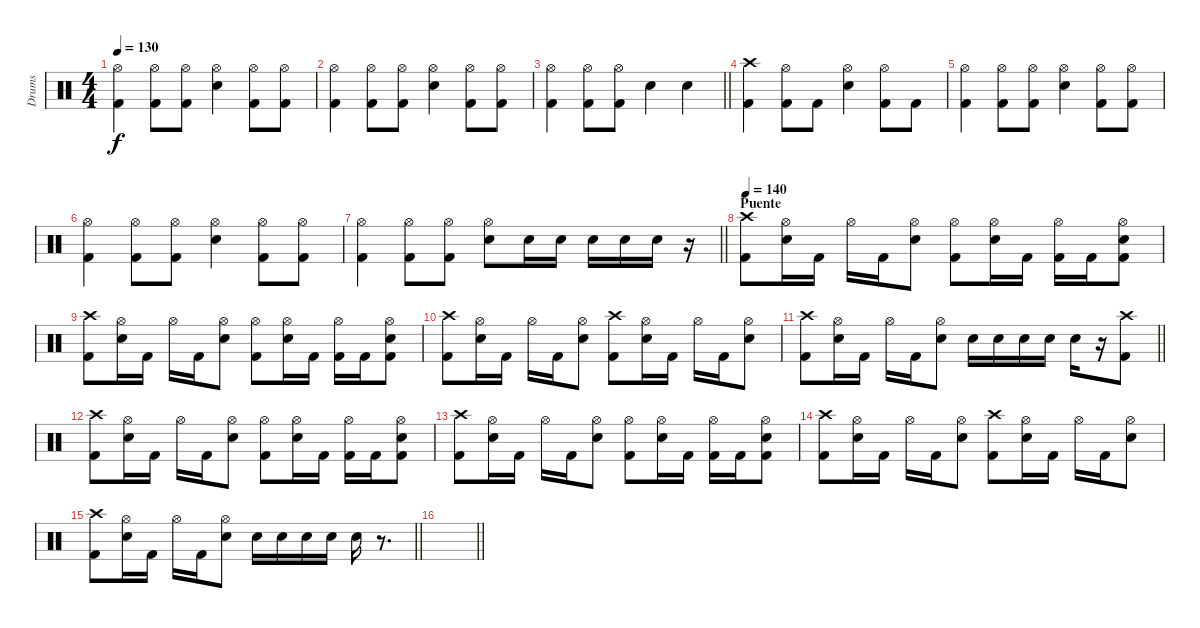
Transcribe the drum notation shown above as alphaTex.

\track ("Drums" "Drums") {instrument percussion}
\staff {score}
\articulation defaults
\ts (4 4)
\tempo 130
\clef neutral
\ks c
("Hi-Hat (open)" "Kick (hit) 2").4{dy f} ("Hi-Hat (open)" "Kick (hit) 2").8 ("Hi-Hat (open)" "Kick (hit) 2").8 ("Hi-Hat (open)" "Snare (hit) 2").4 ("Hi-Hat (open)" "Kick (hit) 2").8 ("Hi-Hat (open)" "Kick (hit) 2").8 |
("Hi-Hat (open)" "Kick (hit) 2").4 ("Hi-Hat (open)" "Kick (hit) 2").8 ("Hi-Hat (open)" "Kick (hit) 2").8 ("Hi-Hat (open)" "Snare (hit) 2").4 ("Hi-Hat (open)" "Kick (hit) 2").8 ("Hi-Hat (open)" "Kick (hit) 2").8 |
\barLineRight lightlight
("Hi-Hat (open)" "Kick (hit) 2").4 ("Hi-Hat (open)" "Kick (hit) 2").8 ("Hi-Hat (open)" "Kick (hit) 2").8 "Snare (hit) 2".4 "Snare (hit) 2".4 |
("Crash high (hit)" "Kick (hit) 2").4 ("Hi-Hat (open)" "Kick (hit) 2").8 "Kick (hit) 2".8 ("Hi-Hat (open)" "Snare (hit) 2").4 ("Hi-Hat (open)" "Kick (hit) 2").8 "Kick (hit) 2".8 |
("Hi-Hat (open)" "Kick (hit) 2").4 ("Hi-Hat (open)" "Kick (hit) 2").8 ("Hi-Hat (open)" "Kick (hit) 2").8 ("Hi-Hat (open)" "Snare (hit) 2").4 ("Hi-Hat (open)" "Kick (hit) 2").8 ("Hi-Hat (open)" "Kick (hit) 2").8 |
("Hi-Hat (open)" "Kick (hit) 2").4 ("Hi-Hat (open)" "Kick (hit) 2").8 ("Hi-Hat (open)" "Kick (hit) 2").8 ("Hi-Hat (open)" "Snare (hit) 2").4 ("Hi-Hat (open)" "Kick (hit) 2").8 ("Hi-Hat (open)" "Kick (hit) 2").8 |
\barLineRight lightlight
("Hi-Hat (open)" "Kick (hit) 2").4 ("Hi-Hat (open)" "Kick (hit) 2").8 ("Hi-Hat (open)" "Kick (hit) 2").8 ("Hi-Hat (open)" "Snare (hit) 2").8 "Snare (hit) 2".16 "Snare (hit) 2".16 "Snare (hit) 2".16 "Snare (hit) 2".16 "Snare (hit) 2".16 r.16 |
\section ("" "Puente")
\tempo 140
("Crash high (hit)" "Kick (hit) 2").8 ("Hi-Hat (open)" "Snare (hit) 2").16 "Kick (hit) 2".16 "Hi-Hat (open)".16 "Kick (hit) 2".16 ("Hi-Hat (open)" "Snare (hit) 2").8 ("Hi-Hat (open)" "Kick (hit) 2").8 ("Hi-Hat (open)" "Snare (hit) 2").16 "Kick (hit) 2".16 ("Hi-Hat (open)" "Kick (hit) 2").16 "Kick (hit) 2".16 ("Hi-Hat (open)" "Snare (hit) 2" "Kick (hit) 2").8 |
("Crash high (hit)" "Kick (hit) 2").8 ("Hi-Hat (open)" "Snare (hit) 2").16 "Kick (hit) 2".16 "Hi-Hat (open)".16 "Kick (hit) 2".16 ("Hi-Hat (open)" "Snare (hit) 2").8 ("Hi-Hat (open)" "Kick (hit) 2").8 ("Hi-Hat (open)" "Snare (hit) 2").16 "Kick (hit) 2".16 ("Hi-Hat (open)" "Kick (hit) 2").16 "Kick (hit) 2".16 ("Hi-Hat (open)" "Snare (hit) 2" "Kick (hit) 2").8 |
("Crash high (hit)" "Kick (hit) 2").8 ("Hi-Hat (open)" "Snare (hit) 2").16 "Kick (hit) 2".16 "Hi-Hat (open)".16 "Kick (hit) 2".16 ("Hi-Hat (open)" "Snare (hit) 2").8 ("Crash high (hit)" "Kick (hit) 2").8 ("Hi-Hat (open)" "Snare (hit) 2").16 "Kick (hit) 2".16 "Hi-Hat (open)".16 "Kick (hit) 2".16 ("Hi-Hat (open)" "Snare (hit) 2").8 |
\barLineRight lightlight
("Crash high (hit)" "Kick (hit) 2").8 ("Hi-Hat (open)" "Snare (hit) 2").16 "Kick (hit) 2".16 "Hi-Hat (open)".16 "Kick (hit) 2".16 ("Hi-Hat (open)" "Snare (hit) 2").8 "Snare (hit) 2".16 "Snare (hit) 2".16 "Snare (hit) 2".16 "Snare (hit) 2".16 "Snare (hit) 2".16 r.16 ("Kick (hit) 2" "Crash high (hit)").8 |
("Crash high (hit)" "Kick (hit) 2").8 ("Hi-Hat (open)" "Snare (hit) 2").16 "Kick (hit) 2".16 "Hi-Hat (open)".16 "Kick (hit) 2".16 ("Hi-Hat (open)" "Snare (hit) 2").8 ("Hi-Hat (open)" "Kick (hit) 2").8 ("Hi-Hat (open)" "Snare (hit) 2").16 "Kick (hit) 2".16 ("Hi-Hat (open)" "Kick (hit) 2").16 "Kick (hit) 2".16 ("Hi-Hat (open)" "Snare (hit) 2" "Kick (hit) 2").8 |
("Crash high (hit)" "Kick (hit) 2").8 ("Hi-Hat (open)" "Snare (hit) 2").16 "Kick (hit) 2".16 "Hi-Hat (open)".16 "Kick (hit) 2".16 ("Hi-Hat (open)" "Snare (hit) 2").8 ("Hi-Hat (open)" "Kick (hit) 2").8 ("Hi-Hat (open)" "Snare (hit) 2").16 "Kick (hit) 2".16 ("Hi-Hat (open)" "Kick (hit) 2").16 "Kick (hit) 2".16 ("Hi-Hat (open)" "Snare (hit) 2" "Kick (hit) 2").8 |
("Crash high (hit)" "Kick (hit) 2").8 ("Hi-Hat (open)" "Snare (hit) 2").16 "Kick (hit) 2".16 "Hi-Hat (open)".16 "Kick (hit) 2".16 ("Hi-Hat (open)" "Snare (hit) 2").8 ("Crash high (hit)" "Kick (hit) 2").8 ("Hi-Hat (open)" "Snare (hit) 2").16 "Kick (hit) 2".16 "Hi-Hat (open)".16 "Kick (hit) 2".16 ("Hi-Hat (open)" "Snare (hit) 2").8 |
\barLineRight lightlight
("Crash high (hit)" "Kick (hit) 2").8 ("Hi-Hat (open)" "Snare (hit) 2").16 "Kick (hit) 2".16 "Hi-Hat (open)".16 "Kick (hit) 2".16 ("Hi-Hat (open)" "Snare (hit) 2").8 "Snare (hit) 2".16 "Snare (hit) 2".16 "Snare (hit) 2".16 "Snare (hit) 2".16 "Snare (hit) 2".16 r.8{d} |
\barLineRight lightlight
